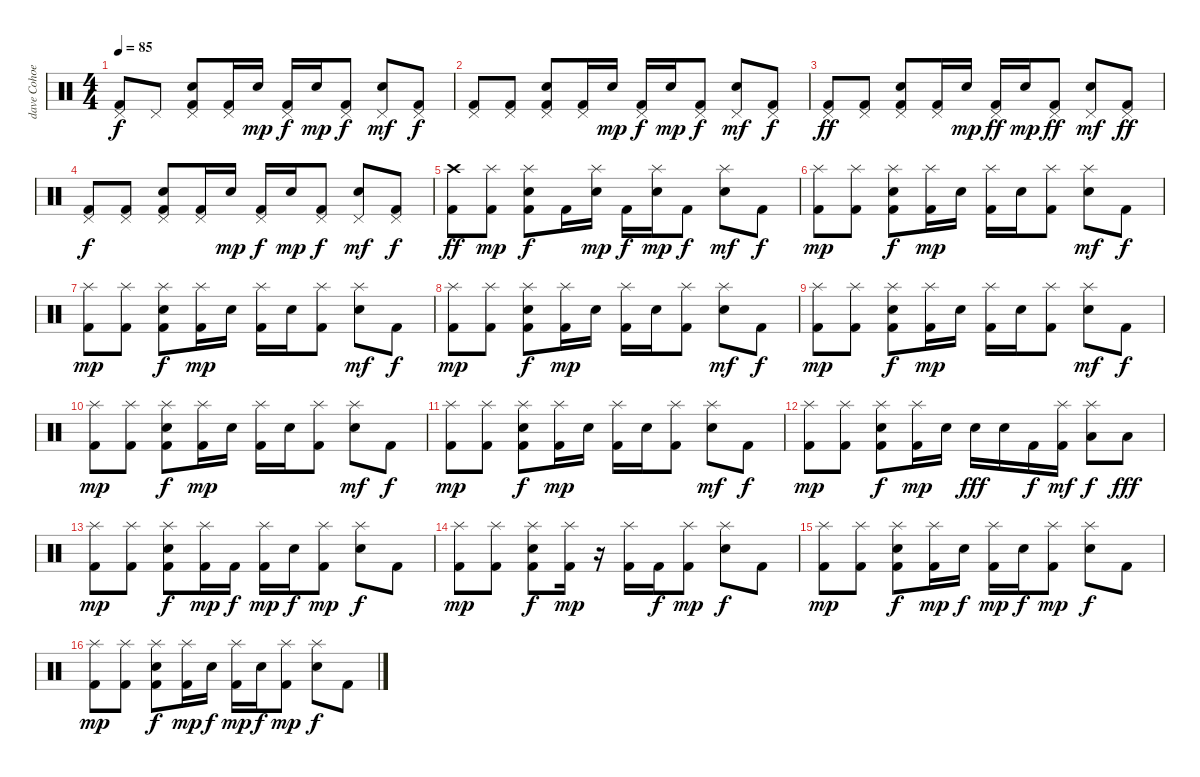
\track ("dave Cohoe" "dave Cohoe") {instrument percussion}
\staff {score}
\articulation defaults
\ts (4 4)
\tempo 85
\clef neutral
\ks c
("Pedal Hi-Hat (hit)" "Kick (hit) 2").8{dy f} "Pedal Hi-Hat (hit)".8 ("Pedal Hi-Hat (hit)" "Electric Snare (hit)" "Kick (hit) 2").8 ("Pedal Hi-Hat (hit)" "Kick (hit) 2").16 "Snare (hit) 2".16{dy mp} ("Pedal Hi-Hat (hit)" "Kick (hit) 2").16{dy f} "Electric Snare (hit)".16{dy mp} ("Pedal Hi-Hat (hit)" "Kick (hit) 2").8{dy f} ("Pedal Hi-Hat (hit)" "Electric Snare (hit)").8{dy mf} ("Pedal Hi-Hat (hit)" "Kick (hit) 2").8{dy f} |
("Pedal Hi-Hat (hit)" "Kick (hit) 2").8 ("Pedal Hi-Hat (hit)" "Kick (hit) 2").8 ("Pedal Hi-Hat (hit)" "Electric Snare (hit)" "Kick (hit) 2").8 ("Pedal Hi-Hat (hit)" "Kick (hit) 2").16 "Snare (hit) 2".16{dy mp} ("Pedal Hi-Hat (hit)" "Kick (hit) 2").16{dy f} "Electric Snare (hit)".16{dy mp} ("Pedal Hi-Hat (hit)" "Kick (hit) 2").8{dy f} ("Pedal Hi-Hat (hit)" "Electric Snare (hit)").8{dy mf} ("Pedal Hi-Hat (hit)" "Kick (hit) 2").8{dy f} |
("Pedal Hi-Hat (hit)" "Kick (hit) 2").8{dy ff} ("Pedal Hi-Hat (hit)" "Kick (hit) 2").8 ("Pedal Hi-Hat (hit)" "Electric Snare (hit)" "Kick (hit) 2").8 ("Pedal Hi-Hat (hit)" "Kick (hit) 2").16 "Snare (hit) 2".16{dy mp} ("Pedal Hi-Hat (hit)" "Kick (hit) 2").16{dy ff} "Electric Snare (hit)".16{dy mp} ("Pedal Hi-Hat (hit)" "Kick (hit) 2").8{dy ff} ("Pedal Hi-Hat (hit)" "Electric Snare (hit)").8{dy mf} ("Pedal Hi-Hat (hit)" "Kick (hit) 2").8{dy ff} |
("Pedal Hi-Hat (hit)" "Kick (hit) 2").8{dy f} ("Pedal Hi-Hat (hit)" "Kick (hit) 2").8 ("Pedal Hi-Hat (hit)" "Electric Snare (hit)" "Kick (hit) 2").8 ("Pedal Hi-Hat (hit)" "Kick (hit) 2").16 "Snare (hit) 2".16{dy mp} ("Pedal Hi-Hat (hit)" "Kick (hit) 2").16{dy f} "Electric Snare (hit)".16{dy mp} ("Pedal Hi-Hat (hit)" "Kick (hit) 2").8{dy f} ("Pedal Hi-Hat (hit)" "Electric Snare (hit)").8{dy mf} ("Pedal Hi-Hat (hit)" "Kick (hit) 2").8{dy f} |
("Crash high (hit)" "Kick (hit) 2").8{dy ff} ("Splash (hit)" "Kick (hit) 2").8{dy mp} ("Splash (hit)" "Electric Snare (hit)" "Kick (hit) 2").8{dy f} "Kick (hit) 2".16 ("Splash (hit)" "Snare (hit) 2").16{dy mp} "Kick (hit) 2".16{dy f} ("Splash (hit)" "Electric Snare (hit)").16{dy mp} "Kick (hit) 2".8{dy f} ("Splash (hit)" "Electric Snare (hit)").8{dy mf} "Kick (hit) 2".8{dy f} |
("Splash (hit)" "Kick (hit) 2").8{dy mp} ("Splash (hit)" "Kick (hit) 2").8 ("Splash (hit)" "Electric Snare (hit)" "Kick (hit) 2").8{dy f} ("Splash (hit)" "Kick (hit) 2").16{dy mp} "Snare (hit) 2".16 ("Splash (hit)" "Kick (hit) 2").16 "Electric Snare (hit)".16 ("Splash (hit)" "Kick (hit) 2").8 ("Splash (hit)" "Electric Snare (hit)").8{dy mf} "Kick (hit) 2".8{dy f} |
("Splash (hit)" "Kick (hit) 2").8{dy mp} ("Splash (hit)" "Kick (hit) 2").8 ("Splash (hit)" "Electric Snare (hit)" "Kick (hit) 2").8{dy f} ("Splash (hit)" "Kick (hit) 2").16{dy mp} "Snare (hit) 2".16 ("Splash (hit)" "Kick (hit) 2").16 "Electric Snare (hit)".16 ("Splash (hit)" "Kick (hit) 2").8 ("Splash (hit)" "Electric Snare (hit)").8{dy mf} "Kick (hit) 2".8{dy f} |
("Splash (hit)" "Kick (hit) 2").8{dy mp} ("Splash (hit)" "Kick (hit) 2").8 ("Splash (hit)" "Electric Snare (hit)" "Kick (hit) 2").8{dy f} ("Splash (hit)" "Kick (hit) 2").16{dy mp} "Snare (hit) 2".16 ("Splash (hit)" "Kick (hit) 2").16 "Electric Snare (hit)".16 ("Splash (hit)" "Kick (hit) 2").8 ("Splash (hit)" "Electric Snare (hit)").8{dy mf} "Kick (hit) 2".8{dy f} |
("Splash (hit)" "Kick (hit) 2").8{dy mp} ("Splash (hit)" "Kick (hit) 2").8 ("Splash (hit)" "Electric Snare (hit)" "Kick (hit) 2").8{dy f} ("Splash (hit)" "Kick (hit) 2").16{dy mp} "Snare (hit) 2".16 ("Splash (hit)" "Kick (hit) 2").16 "Electric Snare (hit)".16 ("Splash (hit)" "Kick (hit) 2").8 ("Splash (hit)" "Electric Snare (hit)").8{dy mf} "Kick (hit) 2".8{dy f} |
("Splash (hit)" "Kick (hit) 2").8{dy mp} ("Splash (hit)" "Kick (hit) 2").8 ("Splash (hit)" "Electric Snare (hit)" "Kick (hit) 2").8{dy f} ("Splash (hit)" "Kick (hit) 2").16{dy mp} "Snare (hit) 2".16 ("Splash (hit)" "Kick (hit) 2").16 "Electric Snare (hit)".16 ("Splash (hit)" "Kick (hit) 2").8 ("Splash (hit)" "Electric Snare (hit)").8{dy mf} "Kick (hit) 2".8{dy f} |
("Splash (hit)" "Kick (hit) 2").8{dy mp} ("Splash (hit)" "Kick (hit) 2").8 ("Splash (hit)" "Electric Snare (hit)" "Kick (hit) 2").8{dy f} ("Splash (hit)" "Kick (hit) 2").16{dy mp} "Snare (hit) 2".16 ("Splash (hit)" "Kick (hit) 2").16 "Electric Snare (hit)".16 ("Splash (hit)" "Kick (hit) 2").8 ("Splash (hit)" "Electric Snare (hit)").8{dy mf} "Kick (hit) 2".8{dy f} |
("Splash (hit)" "Kick (hit) 2").8{dy mp} ("Splash (hit)" "Kick (hit) 2").8 ("Splash (hit)" "Electric Snare (hit)" "Kick (hit) 2").8{dy f} ("Splash (hit)" "Kick (hit) 2").16{dy mp} "Snare (hit) 2".16 "Electric Snare (hit)".16{dy fff} "Electric Snare (hit)".16 "Kick (hit) 2".16{dy f} ("Splash (hit)" "Kick (hit) 2").16{dy mf} ("Splash (hit)" "Low Tom (hit)").8{dy f} "Low Floor Tom (hit)".8{dy fff} |
("Splash (hit)" "Kick (hit) 2").8{dy mp volume 12} ("Splash (hit)" "Kick (hit) 2").8 ("Splash (hit)" "Electric Snare (hit)" "Kick (hit) 2").8{dy f} ("Splash (hit)" "Kick (hit) 2").16{dy mp} "Kick (hit) 2".16{dy f} ("Splash (hit)" "Kick (hit) 2").16{dy mp} "Electric Snare (hit)".16{dy f} ("Splash (hit)" "Kick (hit) 2").8{dy mp} ("Splash (hit)" "Electric Snare (hit)").8{dy f} "Kick (hit) 2".8 |
("Splash (hit)" "Kick (hit) 2").8{dy mp volume 12} ("Splash (hit)" "Kick (hit) 2").8 ("Splash (hit)" "Electric Snare (hit)" "Kick (hit) 2").8{dy f} ("Splash (hit)" "Kick (hit) 2").16{dy mp} r.16 ("Splash (hit)" "Kick (hit) 2").16 "Kick (hit) 2".16{dy f} ("Splash (hit)" "Kick (hit) 2").8{dy mp} ("Splash (hit)" "Electric Snare (hit)").8{dy f} "Kick (hit) 2".8 |
("Splash (hit)" "Kick (hit) 2").8{dy mp volume 12} ("Splash (hit)" "Kick (hit) 2").8 ("Splash (hit)" "Electric Snare (hit)" "Kick (hit) 2").8{dy f} ("Splash (hit)" "Kick (hit) 2").16{dy mp} "Snare (hit) 2".16{dy f} ("Splash (hit)" "Kick (hit) 2").16{dy mp} "Electric Snare (hit)".16{dy f} ("Splash (hit)" "Kick (hit) 2").8{dy mp} ("Splash (hit)" "Electric Snare (hit)").8{dy f} "Kick (hit) 2".8 |
("Splash (hit)" "Kick (hit) 2").8{dy mp volume 12} ("Splash (hit)" "Kick (hit) 2").8 ("Splash (hit)" "Electric Snare (hit)" "Kick (hit) 2").8{dy f} ("Splash (hit)" "Kick (hit) 2").16{dy mp} "Snare (hit) 2".16{dy f} ("Splash (hit)" "Kick (hit) 2").16{dy mp} "Electric Snare (hit)".16{dy f} ("Splash (hit)" "Kick (hit) 2").8{dy mp} ("Splash (hit)" "Electric Snare (hit)").8{dy f} "Kick (hit) 2".8
